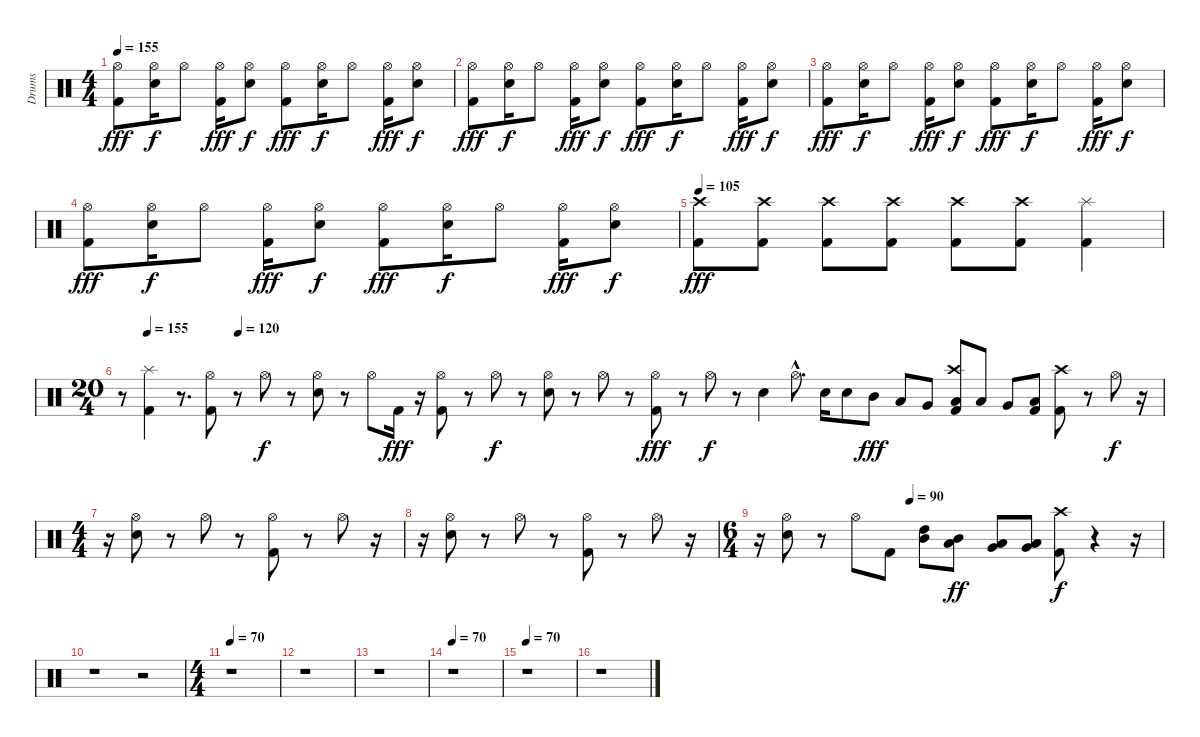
\track ("Drums" "Drums") {instrument percussion}
\staff {score}
\articulation defaults
\ts (4 4)
\tempo 155
\clef neutral
\ks c
("Kick (hit) 2" "Hi-Hat (open)").8{dy fff} ("Electric Snare (hit)" "Hi-Hat (open)").16{dy f} "Hi-Hat (open)".8 ("Kick (hit) 2" "Hi-Hat (open)").16{dy fff} ("Electric Snare (hit)" "Hi-Hat (open)").8{dy f} ("Kick (hit) 2" "Hi-Hat (open)").8{dy fff} ("Electric Snare (hit)" "Hi-Hat (open)").16{dy f} "Hi-Hat (open)".8 ("Kick (hit) 2" "Hi-Hat (open)").16{dy fff} ("Electric Snare (hit)" "Hi-Hat (open)").8{dy f} |
("Kick (hit) 2" "Hi-Hat (open)").8{dy fff} ("Electric Snare (hit)" "Hi-Hat (open)").16{dy f} "Hi-Hat (open)".8 ("Kick (hit) 2" "Hi-Hat (open)").16{dy fff} ("Electric Snare (hit)" "Hi-Hat (open)").8{dy f} ("Kick (hit) 2" "Hi-Hat (open)").8{dy fff} ("Electric Snare (hit)" "Hi-Hat (open)").16{dy f} "Hi-Hat (open)".8 ("Kick (hit) 2" "Hi-Hat (open)").16{dy fff} ("Electric Snare (hit)" "Hi-Hat (open)").8{dy f} |
("Kick (hit) 2" "Hi-Hat (open)").8{dy fff} ("Electric Snare (hit)" "Hi-Hat (open)").16{dy f} "Hi-Hat (open)".8 ("Kick (hit) 2" "Hi-Hat (open)").16{dy fff} ("Electric Snare (hit)" "Hi-Hat (open)").8{dy f} ("Kick (hit) 2" "Hi-Hat (open)").8{dy fff} ("Electric Snare (hit)" "Hi-Hat (open)").16{dy f} "Hi-Hat (open)".8 ("Kick (hit) 2" "Hi-Hat (open)").16{dy fff} ("Electric Snare (hit)" "Hi-Hat (open)").8{dy f} |
("Kick (hit) 2" "Hi-Hat (open)").8{dy fff} ("Electric Snare (hit)" "Hi-Hat (open)").16{dy f} "Hi-Hat (open)".8 ("Kick (hit) 2" "Hi-Hat (open)").16{dy fff} ("Electric Snare (hit)" "Hi-Hat (open)").8{dy f} ("Kick (hit) 2" "Hi-Hat (open)").8{dy fff} ("Electric Snare (hit)" "Hi-Hat (open)").16{dy f} "Hi-Hat (open)".8 ("Kick (hit) 2" "Hi-Hat (open)").16{dy fff} ("Electric Snare (hit)" "Hi-Hat (open)").8{dy f} |
\tempo 105
("Kick (hit) 2" "Crash high (hit)").8{dy fff} ("Kick (hit) 2" "Crash high (hit)").8 ("Kick (hit) 2" "Crash high (hit)").8 ("Kick (hit) 2" "Crash high (hit)").8 ("Kick (hit) 2" "Crash high (hit)").8 ("Kick (hit) 2" "Crash high (hit)").8 ("Kick (hit) 2" "Splash (hit)").4 |
\ts (20 4)
\tempo (155 0.025)
\tempo (120 0.1125)
r.8 ("Kick (hit) 2" "Splash (hit)").4 r.8{d} ("Kick (hit) 2" "Hi-Hat (open)").8 r.8 "Hi-Hat (open)".8{dy f} r.8 ("Electric Snare (hit)" "Hi-Hat (open)").8 r.8 "Hi-Hat (open)".8 "Kick (hit) 2".16{dy fff} r.16 ("Kick (hit) 2" "Hi-Hat (open)").8 r.8 "Hi-Hat (open)".8{dy f} r.8 ("Electric Snare (hit)" "Hi-Hat (open)").8 r.8 "Hi-Hat (open)".8 r.8 ("Kick (hit) 2" "Hi-Hat (open)").8{dy fff} r.8 "Hi-Hat (open)".8{dy f} r.8 "Electric Snare (hit)".4 "Hi-Hat (open)"{hac}.8{d} "Electric Snare (hit)".16 "Electric Snare (hit)".8 "Mid Tom (hit)".8{dy fff} "Low Tom (hit)".8 "Very Low Tom (hit)".8 ("Kick (hit) 2" "Low Floor Tom (hit)" "Crash high (hit)").8 "Low Tom (hit)".8 "Very Low Tom (hit)".8 ("Kick (hit) 2" "Low Floor Tom (hit)").8 ("Kick (hit) 2" "Crash high (hit)").8 r.8 "Hi-Hat (open)".8{dy f} r.16 |
\ts (4 4)
r.16 ("Electric Snare (hit)" "Hi-Hat (open)").8 r.8 "Hi-Hat (open)".8 r.8 ("Kick (hit) 2" "Hi-Hat (open)").8 r.8 "Hi-Hat (open)".8 r.16 |
r.16 ("Electric Snare (hit)" "Hi-Hat (open)").8 r.8 "Hi-Hat (open)".8 r.8 ("Kick (hit) 2" "Hi-Hat (open)").8 r.8 "Hi-Hat (open)".8 r.16 |
\ts (6 4)
\tempo (90 0.375)
r.16 ("Electric Snare (hit)" "Hi-Hat (open)").8 r.8 "Hi-Hat (open)".8 "Kick (hit) 2".8 ("Mid Tom (hit)" "High Tom (hit)").8 ("Low Tom (hit)" "Mid Tom (hit)").8{dy ff} ("Very Low Tom (hit)" "Low Tom (hit)").8 ("Low Floor Tom (hit)" "Very Low Tom (hit)").8 ("Kick (hit) 2" "Crash high (hit)").8{dy f} r.4 r.16 |
r.1 r.2 |
\ts (4 4)
\tempo 70
r.1 |
r.1 |
r.1 |
\tempo 70
r.1 |
\tempo 70
r.1 |
r.1
